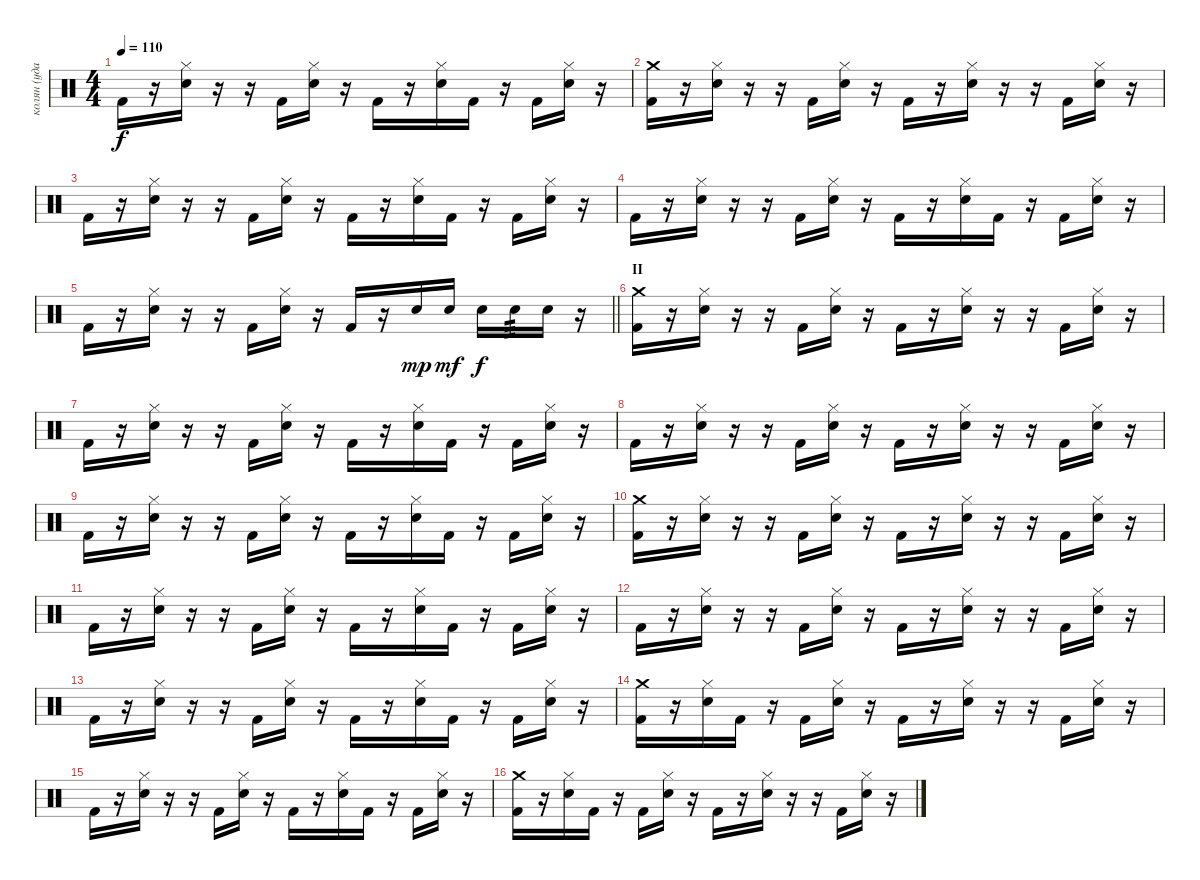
\track ("колян (ударные)" "колян (уда") {instrument percussion}
\staff {score}
\articulation defaults
\ts (4 4)
\tempo 110
\clef neutral
\ks c "Kick (hit) 2".16{dy f}
r.16 ("Snare (hit) 2" "Hi-Hat (closed)").16 r.16 r.16 "Kick (hit) 2".16 ("Snare (hit) 2" "Hi-Hat (closed)").16 r.16 "Kick (hit) 2".16 r.16 ("Snare (hit) 2" "Hi-Hat (closed)").16 "Kick (hit) 2".16 r.16 "Kick (hit) 2".16 ("Snare (hit) 2" "Hi-Hat (closed)").16 r.16 |
("Kick (hit) 2" "Crash medium (hit)").16 r.16 ("Snare (hit) 2" "Hi-Hat (closed)").16 r.16 r.16 "Kick (hit) 2".16 ("Snare (hit) 2" "Hi-Hat (closed)").16 r.16 "Kick (hit) 2".16 r.16 ("Snare (hit) 2" "Hi-Hat (closed)").16 r.16 r.16 "Kick (hit) 2".16 ("Snare (hit) 2" "Hi-Hat (closed)").16 r.16 |
"Kick (hit) 2".16 r.16 ("Snare (hit) 2" "Hi-Hat (closed)").16 r.16 r.16 "Kick (hit) 2".16 ("Snare (hit) 2" "Hi-Hat (closed)").16 r.16 "Kick (hit) 2".16 r.16 ("Snare (hit) 2" "Hi-Hat (closed)").16 "Kick (hit) 2".16 r.16 "Kick (hit) 2".16 ("Snare (hit) 2" "Hi-Hat (closed)").16 r.16 |
"Kick (hit) 2".16 r.16 ("Snare (hit) 2" "Hi-Hat (closed)").16 r.16 r.16 "Kick (hit) 2".16 ("Snare (hit) 2" "Hi-Hat (closed)").16 r.16 "Kick (hit) 2".16 r.16 ("Snare (hit) 2" "Hi-Hat (closed)").16 "Kick (hit) 2".16 r.16 "Kick (hit) 2".16 ("Snare (hit) 2" "Hi-Hat (closed)").16 r.16 |
\barLineRight lightlight "Kick (hit) 2".16
r.16 ("Snare (hit) 2" "Hi-Hat (closed)").16 r.16 r.16 "Kick (hit) 2".16 ("Snare (hit) 2" "Hi-Hat (closed)").16 r.16 "Kick (hit) 2".16 r.16 "Snare (hit) 2".16{dy mp} "Snare (hit) 2".16{dy mf} "Snare (hit) 2".16{dy f} "Snare (hit) 2".16{tp 3} "Snare (hit) 2".16 r.16 |
\section ("" "II")
("Kick (hit) 2" "Crash medium (hit)").16 r.16 ("Snare (hit) 2" "Hi-Hat (closed)").16 r.16 r.16 "Kick (hit) 2".16 ("Snare (hit) 2" "Hi-Hat (closed)").16 r.16 "Kick (hit) 2".16 r.16 ("Snare (hit) 2" "Hi-Hat (closed)").16 r.16 r.16 "Kick (hit) 2".16 ("Snare (hit) 2" "Hi-Hat (closed)").16 r.16 |
"Kick (hit) 2".16 r.16 ("Snare (hit) 2" "Hi-Hat (closed)").16 r.16 r.16 "Kick (hit) 2".16 ("Snare (hit) 2" "Hi-Hat (closed)").16 r.16 "Kick (hit) 2".16 r.16 ("Snare (hit) 2" "Hi-Hat (closed)").16 "Kick (hit) 2".16 r.16 "Kick (hit) 2".16 ("Snare (hit) 2" "Hi-Hat (closed)").16 r.16 |
"Kick (hit) 2".16 r.16 ("Snare (hit) 2" "Hi-Hat (closed)").16 r.16 r.16 "Kick (hit) 2".16 ("Snare (hit) 2" "Hi-Hat (closed)").16 r.16 "Kick (hit) 2".16 r.16 ("Snare (hit) 2" "Hi-Hat (closed)").16 r.16 r.16 "Kick (hit) 2".16 ("Snare (hit) 2" "Hi-Hat (closed)").16 r.16 |
"Kick (hit) 2".16 r.16 ("Snare (hit) 2" "Hi-Hat (closed)").16 r.16 r.16 "Kick (hit) 2".16 ("Snare (hit) 2" "Hi-Hat (closed)").16 r.16 "Kick (hit) 2".16 r.16 ("Snare (hit) 2" "Hi-Hat (closed)").16 "Kick (hit) 2".16 r.16 "Kick (hit) 2".16 ("Snare (hit) 2" "Hi-Hat (closed)").16 r.16 |
("Kick (hit) 2" "Crash medium (hit)").16 r.16 ("Snare (hit) 2" "Hi-Hat (closed)").16 r.16 r.16 "Kick (hit) 2".16 ("Snare (hit) 2" "Hi-Hat (closed)").16 r.16 "Kick (hit) 2".16 r.16 ("Snare (hit) 2" "Hi-Hat (closed)").16 r.16 r.16 "Kick (hit) 2".16 ("Snare (hit) 2" "Hi-Hat (closed)").16 r.16 |
"Kick (hit) 2".16 r.16 ("Snare (hit) 2" "Hi-Hat (closed)").16 r.16 r.16 "Kick (hit) 2".16 ("Snare (hit) 2" "Hi-Hat (closed)").16 r.16 "Kick (hit) 2".16 r.16 ("Snare (hit) 2" "Hi-Hat (closed)").16 "Kick (hit) 2".16 r.16 "Kick (hit) 2".16 ("Snare (hit) 2" "Hi-Hat (closed)").16 r.16 |
"Kick (hit) 2".16 r.16 ("Snare (hit) 2" "Hi-Hat (closed)").16 r.16 r.16 "Kick (hit) 2".16 ("Snare (hit) 2" "Hi-Hat (closed)").16 r.16 "Kick (hit) 2".16 r.16 ("Snare (hit) 2" "Hi-Hat (closed)").16 r.16 r.16 "Kick (hit) 2".16 ("Snare (hit) 2" "Hi-Hat (closed)").16 r.16 |
"Kick (hit) 2".16 r.16 ("Snare (hit) 2" "Hi-Hat (closed)").16 r.16 r.16 "Kick (hit) 2".16 ("Snare (hit) 2" "Hi-Hat (closed)").16 r.16 "Kick (hit) 2".16 r.16 ("Snare (hit) 2" "Hi-Hat (closed)").16 "Kick (hit) 2".16 r.16 "Kick (hit) 2".16 ("Snare (hit) 2" "Hi-Hat (closed)").16 r.16 |
("Kick (hit) 2" "Crash medium (hit)").16 r.16 ("Snare (hit) 2" "Hi-Hat (closed)").16 "Kick (hit) 2".16 r.16 "Kick (hit) 2".16 ("Snare (hit) 2" "Hi-Hat (closed)").16 r.16 "Kick (hit) 2".16 r.16 ("Snare (hit) 2" "Hi-Hat (closed)").16 r.16 r.16 "Kick (hit) 2".16 ("Snare (hit) 2" "Hi-Hat (closed)").16 r.16 |
"Kick (hit) 2".16 r.16 ("Snare (hit) 2" "Hi-Hat (closed)").16 r.16 r.16 "Kick (hit) 2".16 ("Snare (hit) 2" "Hi-Hat (closed)").16 r.16 "Kick (hit) 2".16 r.16 ("Snare (hit) 2" "Hi-Hat (closed)").16 "Kick (hit) 2".16 r.16 "Kick (hit) 2".16 ("Snare (hit) 2" "Hi-Hat (closed)").16 r.16 |
("Kick (hit) 2" "Crash medium (hit)").16 r.16 ("Snare (hit) 2" "Hi-Hat (closed)").16 "Kick (hit) 2".16 r.16 "Kick (hit) 2".16 ("Snare (hit) 2" "Hi-Hat (closed)").16 r.16 "Kick (hit) 2".16 r.16 ("Snare (hit) 2" "Hi-Hat (closed)").16 r.16 r.16 "Kick (hit) 2".16 ("Snare (hit) 2" "Hi-Hat (closed)").16 r.16
